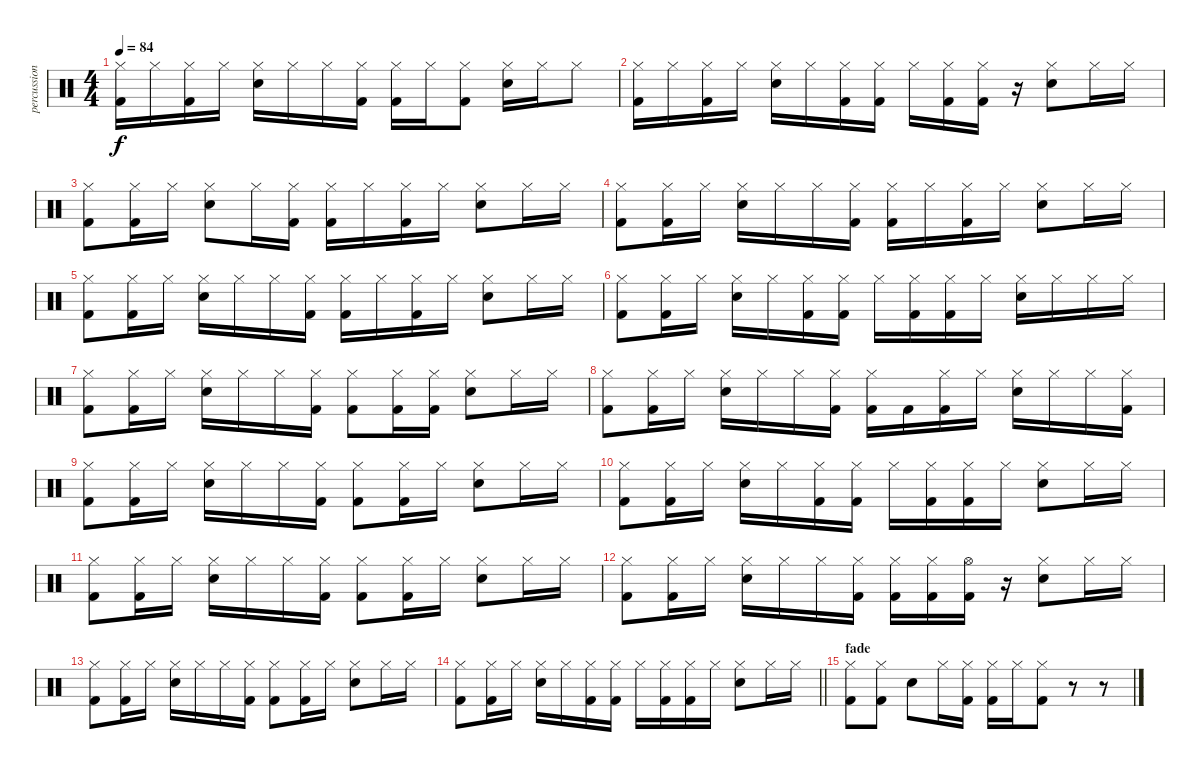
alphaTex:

\track ("percussion" "percussion") {instrument percussion}
\staff {score}
\articulation defaults
\ts (4 4)
\tempo 84
\clef neutral
\ks c
("Hi-Hat (closed)" "Kick (hit) 2").16{dy f} "Hi-Hat (closed)".16 ("Hi-Hat (closed)" "Kick (hit) 2").16 "Hi-Hat (closed)".16 ("Snare (hit) 2" "Hi-Hat (closed)").16 "Hi-Hat (closed)".16 "Hi-Hat (closed)".16 ("Hi-Hat (closed)" "Kick (hit) 2").16 ("Hi-Hat (closed)" "Kick (hit) 2").16 "Hi-Hat (closed)".16 ("Hi-Hat (closed)" "Kick (hit) 2").8 ("Snare (hit) 2" "Hi-Hat (closed)").16 "Hi-Hat (closed)".16 "Hi-Hat (closed)".8 |
("Hi-Hat (closed)" "Kick (hit) 2").16 "Hi-Hat (closed)".16 ("Hi-Hat (closed)" "Kick (hit) 2").16 "Hi-Hat (closed)".16 ("Snare (hit) 2" "Hi-Hat (closed)").16 "Hi-Hat (closed)".16 ("Hi-Hat (closed)" "Kick (hit) 2").16 ("Hi-Hat (closed)" "Kick (hit) 2").16 "Hi-Hat (closed)".16 ("Hi-Hat (closed)" "Kick (hit) 2").16 ("Hi-Hat (closed)" "Kick (hit) 2").16 r.16 ("Snare (hit) 2" "Hi-Hat (closed)").8 "Hi-Hat (closed)".16 "Hi-Hat (closed)".16 |
("Hi-Hat (closed)" "Kick (hit) 2").8 ("Hi-Hat (closed)" "Kick (hit) 2").16 "Hi-Hat (closed)".16 ("Snare (hit) 2" "Hi-Hat (closed)").8 "Hi-Hat (closed)".16 ("Hi-Hat (closed)" "Kick (hit) 2").16 ("Hi-Hat (closed)" "Kick (hit) 2").16 "Hi-Hat (closed)".16 ("Hi-Hat (closed)" "Kick (hit) 2").16 "Hi-Hat (closed)".16 ("Snare (hit) 2" "Hi-Hat (closed)").8 "Hi-Hat (closed)".16 "Hi-Hat (closed)".16 |
("Hi-Hat (closed)" "Kick (hit) 2").8 ("Hi-Hat (closed)" "Kick (hit) 2").16 "Hi-Hat (closed)".16 ("Snare (hit) 2" "Hi-Hat (closed)").16 "Hi-Hat (closed)".16 "Hi-Hat (closed)".16 ("Hi-Hat (closed)" "Kick (hit) 2").16 ("Hi-Hat (closed)" "Kick (hit) 2").16 "Hi-Hat (closed)".16 ("Hi-Hat (closed)" "Kick (hit) 2").16 "Hi-Hat (closed)".16 ("Snare (hit) 2" "Hi-Hat (closed)").8 "Hi-Hat (closed)".16 "Hi-Hat (closed)".16 |
("Hi-Hat (closed)" "Kick (hit) 2").8 ("Hi-Hat (closed)" "Kick (hit) 2").16 "Hi-Hat (closed)".16 ("Snare (hit) 2" "Hi-Hat (closed)").16 "Hi-Hat (closed)".16 "Hi-Hat (closed)".16 ("Hi-Hat (closed)" "Kick (hit) 2").16 ("Hi-Hat (closed)" "Kick (hit) 2").16 "Hi-Hat (closed)".16 ("Hi-Hat (closed)" "Kick (hit) 2").16 "Hi-Hat (closed)".16 ("Snare (hit) 2" "Hi-Hat (closed)").8 "Hi-Hat (closed)".16 "Hi-Hat (closed)".16 |
("Hi-Hat (closed)" "Kick (hit) 2").8 ("Hi-Hat (closed)" "Kick (hit) 2").16 "Hi-Hat (closed)".16 ("Snare (hit) 2" "Hi-Hat (closed)").16 "Hi-Hat (closed)".16 ("Hi-Hat (closed)" "Kick (hit) 2").16 ("Hi-Hat (closed)" "Kick (hit) 2").16 "Hi-Hat (closed)".16 ("Hi-Hat (closed)" "Kick (hit) 2").16 ("Hi-Hat (closed)" "Kick (hit) 2").16 "Hi-Hat (closed)".16 ("Snare (hit) 2" "Hi-Hat (closed)").16 "Hi-Hat (closed)".16 "Hi-Hat (closed)".16 "Hi-Hat (closed)".16 |
("Hi-Hat (closed)" "Kick (hit) 2").8 ("Hi-Hat (closed)" "Kick (hit) 2").16 "Hi-Hat (closed)".16 ("Snare (hit) 2" "Hi-Hat (closed)").16 "Hi-Hat (closed)".16 "Hi-Hat (closed)".16 ("Hi-Hat (closed)" "Kick (hit) 2").16 ("Hi-Hat (closed)" "Kick (hit) 2").8 ("Hi-Hat (closed)" "Kick (hit) 2").16 ("Hi-Hat (closed)" "Kick (hit) 2").16 ("Snare (hit) 2" "Hi-Hat (closed)").8 "Hi-Hat (closed)".16 "Hi-Hat (closed)".16 |
("Hi-Hat (closed)" "Kick (hit) 2").8 ("Hi-Hat (closed)" "Kick (hit) 2").16 "Hi-Hat (closed)".16 ("Snare (hit) 2" "Hi-Hat (closed)").16 "Hi-Hat (closed)".16 "Hi-Hat (closed)".16 ("Hi-Hat (closed)" "Kick (hit) 2").16 ("Hi-Hat (closed)" "Kick (hit) 2").16 "Kick (hit) 2".16 ("Hi-Hat (closed)" "Kick (hit) 2").16 "Hi-Hat (closed)".16 ("Snare (hit) 2" "Hi-Hat (closed)").16 "Hi-Hat (closed)".16 "Hi-Hat (closed)".16 ("Hi-Hat (closed)" "Kick (hit) 2").16 |
("Hi-Hat (closed)" "Kick (hit) 2").8 ("Hi-Hat (closed)" "Kick (hit) 2").16 "Hi-Hat (closed)".16 ("Snare (hit) 2" "Hi-Hat (closed)").16 "Hi-Hat (closed)".16 "Hi-Hat (closed)".16 ("Hi-Hat (closed)" "Kick (hit) 2").16 ("Hi-Hat (closed)" "Kick (hit) 2").8 ("Hi-Hat (closed)" "Kick (hit) 2").16 "Hi-Hat (closed)".16 ("Snare (hit) 2" "Hi-Hat (closed)").8 "Hi-Hat (closed)".16 "Hi-Hat (closed)".16 |
("Hi-Hat (closed)" "Kick (hit) 2").8 ("Hi-Hat (closed)" "Kick (hit) 2").16 "Hi-Hat (closed)".16 ("Snare (hit) 2" "Hi-Hat (closed)").16 "Hi-Hat (closed)".16 ("Hi-Hat (closed)" "Kick (hit) 2").16 ("Hi-Hat (closed)" "Kick (hit) 2").16 "Hi-Hat (closed)".16 ("Hi-Hat (closed)" "Kick (hit) 2").16 ("Hi-Hat (closed)" "Kick (hit) 2").16 "Hi-Hat (closed)".16 ("Snare (hit) 2" "Hi-Hat (closed)").8 "Hi-Hat (closed)".16 "Hi-Hat (closed)".16 |
("Hi-Hat (closed)" "Kick (hit) 2").8 ("Hi-Hat (closed)" "Kick (hit) 2").16 "Hi-Hat (closed)".16 ("Snare (hit) 2" "Hi-Hat (closed)").16 "Hi-Hat (closed)".16 "Hi-Hat (closed)".16 ("Hi-Hat (closed)" "Kick (hit) 2").16 ("Hi-Hat (closed)" "Kick (hit) 2").8 ("Hi-Hat (closed)" "Kick (hit) 2").16 "Hi-Hat (closed)".16 ("Snare (hit) 2" "Hi-Hat (closed)").8 "Hi-Hat (closed)".16 "Hi-Hat (closed)".16 |
("Hi-Hat (closed)" "Kick (hit) 2").8 ("Hi-Hat (closed)" "Kick (hit) 2").16 "Hi-Hat (closed)".16 ("Snare (hit) 2" "Hi-Hat (closed)").16 "Hi-Hat (closed)".16 "Hi-Hat (closed)".16 ("Hi-Hat (closed)" "Kick (hit) 2").16 ("Hi-Hat (closed)" "Kick (hit) 2").16 ("Hi-Hat (closed)" "Kick (hit) 2").16 ("Hi-Hat (open)" "Kick (hit) 2").16 r.16 ("Snare (hit) 2" "Hi-Hat (closed)").8 "Hi-Hat (closed)".16 "Hi-Hat (closed)".16 |
("Hi-Hat (closed)" "Kick (hit) 2").8 ("Hi-Hat (closed)" "Kick (hit) 2").16 "Hi-Hat (closed)".16 ("Snare (hit) 2" "Hi-Hat (closed)").16 "Hi-Hat (closed)".16 "Hi-Hat (closed)".16 ("Hi-Hat (closed)" "Kick (hit) 2").16 ("Hi-Hat (closed)" "Kick (hit) 2").8 ("Hi-Hat (closed)" "Kick (hit) 2").16 "Hi-Hat (closed)".16 ("Snare (hit) 2" "Hi-Hat (closed)").8 "Hi-Hat (closed)".16 "Hi-Hat (closed)".16 |
\barLineRight lightlight
("Hi-Hat (closed)" "Kick (hit) 2").8 ("Hi-Hat (closed)" "Kick (hit) 2").16 "Hi-Hat (closed)".16 ("Snare (hit) 2" "Hi-Hat (closed)").16 "Hi-Hat (closed)".16 ("Hi-Hat (closed)" "Kick (hit) 2").16 ("Hi-Hat (closed)" "Kick (hit) 2").16 "Hi-Hat (closed)".16 ("Hi-Hat (closed)" "Kick (hit) 2").16 ("Hi-Hat (closed)" "Kick (hit) 2").16 "Hi-Hat (closed)".16 ("Snare (hit) 2" "Hi-Hat (closed)").8 "Hi-Hat (closed)".16 "Hi-Hat (closed)".16 |
\section ("" "fade")
("Hi-Hat (closed)" "Kick (hit) 2").8 ("Hi-Hat (closed)" "Kick (hit) 2").8 "Snare (hit) 2".8 "Hi-Hat (closed)".16 ("Hi-Hat (closed)" "Kick (hit) 2").16 ("Hi-Hat (closed)" "Kick (hit) 2").16 "Hi-Hat (closed)".16 ("Hi-Hat (closed)" "Kick (hit) 2").8 r.8 r.8
